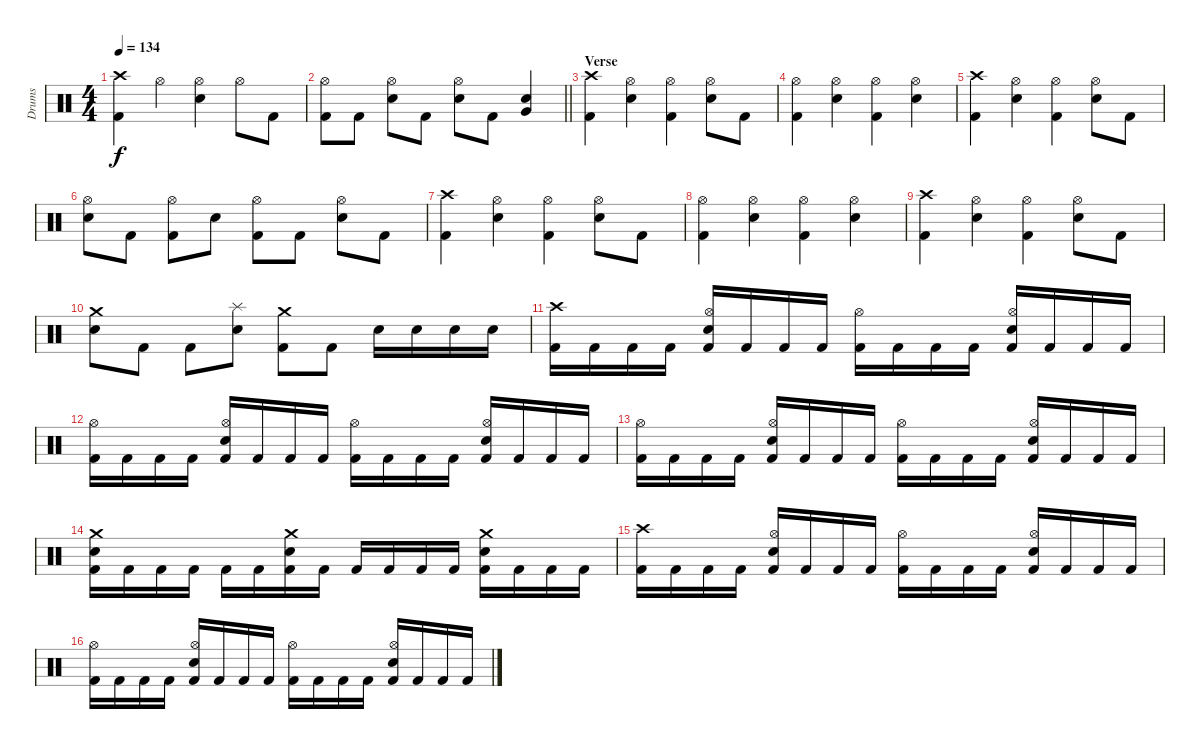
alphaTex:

\track ("Drums" "Drums") {instrument percussion}
\staff {score}
\articulation defaults
\ts (4 4)
\tempo 134
\clef neutral
\ks c
("Crash high (hit)" "Kick (hit) 2").4{dy f} "Hi-Hat (open)".4 ("Hi-Hat (open)" "Electric Snare (hit)").4 "Hi-Hat (open)".8 "Kick (hit) 2".8 |
\barLineRight lightlight
("Hi-Hat (open)" "Kick (hit) 2").8 "Kick (hit) 2".8 ("Hi-Hat (open)" "Electric Snare (hit)").8 "Kick (hit) 2".8 ("Hi-Hat (open)" "Electric Snare (hit)").8 "Kick (hit) 2".8 ("Very Low Tom (hit)" "Electric Snare (hit)").4 |
\section ("" "Verse")
("Crash high (hit)" "Kick (hit) 2").4 ("Hi-Hat (open)" "Electric Snare (hit)").4 ("Hi-Hat (open)" "Kick (hit) 2").4 ("Hi-Hat (open)" "Electric Snare (hit)").8 "Kick (hit) 2".8 |
("Hi-Hat (open)" "Kick (hit) 2").4 ("Hi-Hat (open)" "Electric Snare (hit)").4 ("Hi-Hat (open)" "Kick (hit) 2").4 ("Hi-Hat (open)" "Electric Snare (hit)").4 |
("Crash high (hit)" "Kick (hit) 2").4 ("Hi-Hat (open)" "Electric Snare (hit)").4 ("Hi-Hat (open)" "Kick (hit) 2").4 ("Hi-Hat (open)" "Electric Snare (hit)").8 "Kick (hit) 2".8 |
("Hi-Hat (open)" "Electric Snare (hit)").8 "Kick (hit) 2".8 ("Hi-Hat (open)" "Kick (hit) 2").8 "Electric Snare (hit)".8 ("Hi-Hat (open)" "Kick (hit) 2").8 "Kick (hit) 2".8 ("Hi-Hat (open)" "Electric Snare (hit)").8 "Kick (hit) 2".8 |
("Crash high (hit)" "Kick (hit) 2").4 ("Hi-Hat (open)" "Electric Snare (hit)").4 ("Hi-Hat (open)" "Kick (hit) 2").4 ("Hi-Hat (open)" "Electric Snare (hit)").8 "Kick (hit) 2".8 |
("Hi-Hat (open)" "Kick (hit) 2").4 ("Hi-Hat (open)" "Electric Snare (hit)").4 ("Hi-Hat (open)" "Kick (hit) 2").4 ("Hi-Hat (open)" "Electric Snare (hit)").4 |
("Crash high (hit)" "Kick (hit) 2").4 ("Hi-Hat (open)" "Electric Snare (hit)").4 ("Hi-Hat (open)" "Kick (hit) 2").4 ("Hi-Hat (open)" "Electric Snare (hit)").8 "Kick (hit) 2".8 |
("Crash medium (hit)" "Electric Snare (hit)").8 "Kick (hit) 2".8 "Kick (hit) 2".8 ("Splash (hit)" "Electric Snare (hit)").8 ("Crash medium (hit)" "Kick (hit) 2").8 "Kick (hit) 2".8 "Electric Snare (hit)".16 "Electric Snare (hit)".16 "Electric Snare (hit)".16 "Electric Snare (hit)".16 |
("Crash high (hit)" "Kick (hit) 2").16 "Kick (hit) 2".16 "Kick (hit) 2".16 "Kick (hit) 2".16 ("Hi-Hat (open)" "Electric Snare (hit)" "Kick (hit) 2").16 "Kick (hit) 2".16 "Kick (hit) 2".16 "Kick (hit) 2".16 ("Hi-Hat (open)" "Kick (hit) 2").16 "Kick (hit) 2".16 "Kick (hit) 2".16 "Kick (hit) 2".16 ("Hi-Hat (open)" "Electric Snare (hit)" "Kick (hit) 2").16 "Kick (hit) 2".16 "Kick (hit) 2".16 "Kick (hit) 2".16 |
("Hi-Hat (open)" "Kick (hit) 2").16 "Kick (hit) 2".16 "Kick (hit) 2".16 "Kick (hit) 2".16 ("Hi-Hat (open)" "Electric Snare (hit)" "Kick (hit) 2").16 "Kick (hit) 2".16 "Kick (hit) 2".16 "Kick (hit) 2".16 ("Hi-Hat (open)" "Kick (hit) 2").16 "Kick (hit) 2".16 "Kick (hit) 2".16 "Kick (hit) 2".16 ("Hi-Hat (open)" "Electric Snare (hit)" "Kick (hit) 2").16 "Kick (hit) 2".16 "Kick (hit) 2".16 "Kick (hit) 2".16 |
("Hi-Hat (open)" "Kick (hit) 2").16 "Kick (hit) 2".16 "Kick (hit) 2".16 "Kick (hit) 2".16 ("Hi-Hat (open)" "Electric Snare (hit)" "Kick (hit) 2").16 "Kick (hit) 2".16 "Kick (hit) 2".16 "Kick (hit) 2".16 ("Hi-Hat (open)" "Kick (hit) 2").16 "Kick (hit) 2".16 "Kick (hit) 2".16 "Kick (hit) 2".16 ("Hi-Hat (open)" "Electric Snare (hit)" "Kick (hit) 2").16 "Kick (hit) 2".16 "Kick (hit) 2".16 "Kick (hit) 2".16 |
("Crash medium (hit)" "Electric Snare (hit)" "Kick (hit) 2").16 "Kick (hit) 2".16 "Kick (hit) 2".16 "Kick (hit) 2".16 "Kick (hit) 2".16 "Kick (hit) 2".16 ("Crash medium (hit)" "Electric Snare (hit)" "Kick (hit) 2").16 "Kick (hit) 2".16 "Kick (hit) 2".16 "Kick (hit) 2".16 "Kick (hit) 2".16 "Kick (hit) 2".16 ("Crash medium (hit)" "Electric Snare (hit)" "Kick (hit) 2").16 "Kick (hit) 2".16 "Kick (hit) 2".16 "Kick (hit) 2".16 |
("Crash high (hit)" "Kick (hit) 2").16 "Kick (hit) 2".16 "Kick (hit) 2".16 "Kick (hit) 2".16 ("Hi-Hat (open)" "Electric Snare (hit)" "Kick (hit) 2").16 "Kick (hit) 2".16 "Kick (hit) 2".16 "Kick (hit) 2".16 ("Hi-Hat (open)" "Kick (hit) 2").16 "Kick (hit) 2".16 "Kick (hit) 2".16 "Kick (hit) 2".16 ("Hi-Hat (open)" "Electric Snare (hit)" "Kick (hit) 2").16 "Kick (hit) 2".16 "Kick (hit) 2".16 "Kick (hit) 2".16 |
("Hi-Hat (open)" "Kick (hit) 2").16 "Kick (hit) 2".16 "Kick (hit) 2".16 "Kick (hit) 2".16 ("Hi-Hat (open)" "Electric Snare (hit)" "Kick (hit) 2").16 "Kick (hit) 2".16 "Kick (hit) 2".16 "Kick (hit) 2".16 ("Hi-Hat (open)" "Kick (hit) 2").16 "Kick (hit) 2".16 "Kick (hit) 2".16 "Kick (hit) 2".16 ("Hi-Hat (open)" "Electric Snare (hit)" "Kick (hit) 2").16 "Kick (hit) 2".16 "Kick (hit) 2".16 "Kick (hit) 2".16
